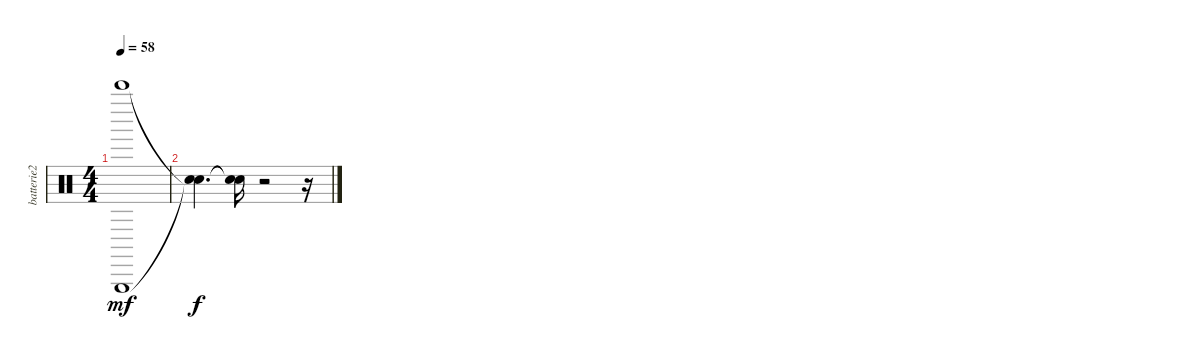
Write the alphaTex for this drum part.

\track ("batterie2" "batterie2") {instrument percussion}
\staff {score}
\articulation defaults
\ts (4 4)
\tempo 58
\clef neutral
\ks c
("Triangle (hit)" "Bell Tree (hit)").1{dy mf} |
("Snare (hit)"{t} "Snare (hit)"{t}).4{d dy f} ("Snare (hit)"{t} "Snare (hit)"{t}).16 r.2 r.16
